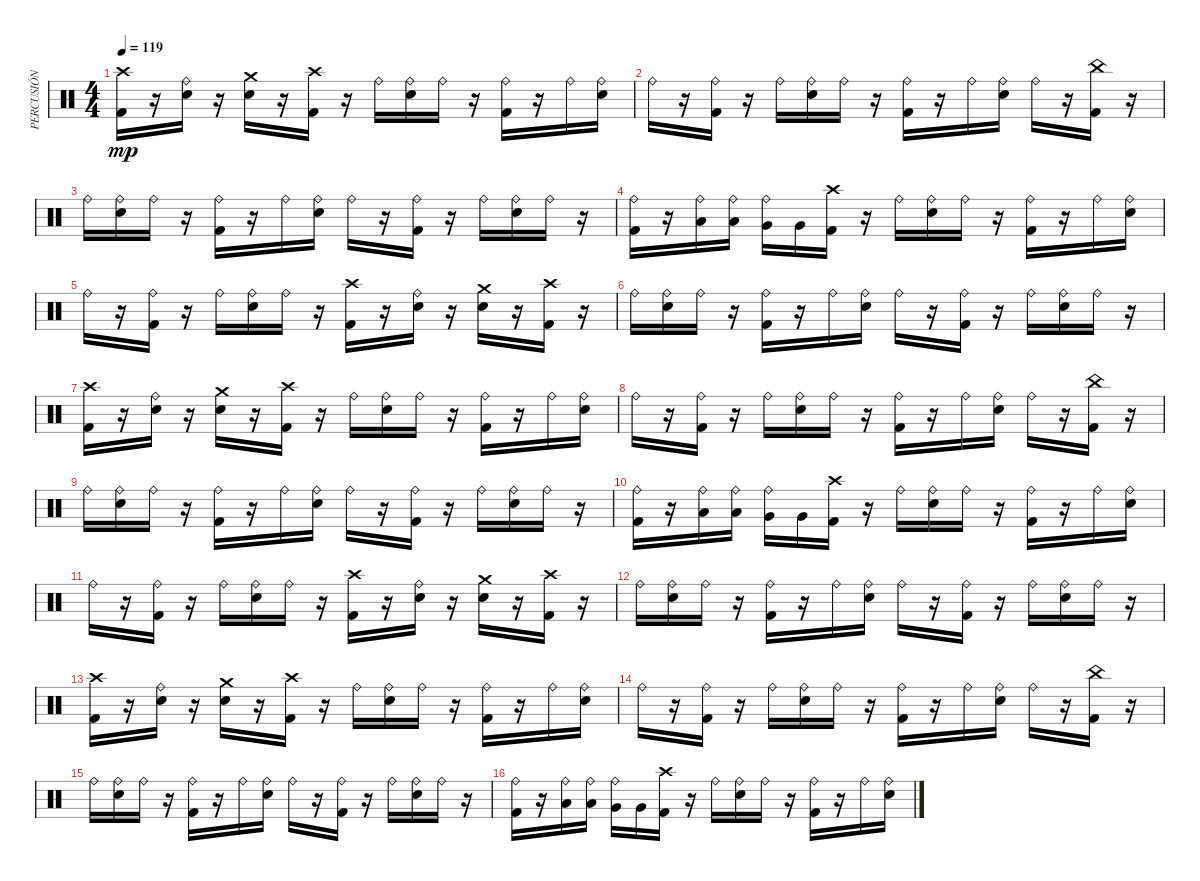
\track ("PERCUSIÓN" "PERCUSIÓN") {instrument percussion}
\staff {score}
\articulation defaults
\ts (4 4)
\tempo 119
\clef neutral
\ks c
("Kick (hit) 2" "Crash high (hit)").16{dy mp} r.16 ("Snare (hit) 2" "Ride (bell)").16 r.16 ("Snare (hit) 2" "Crash medium (hit)").16 r.16 ("Kick (hit) 2" "Crash high (hit)").16 r.16 "Ride (bell)".16 ("Snare (hit) 2" "Ride (bell)").16 "Ride (bell)".16 r.16 ("Kick (hit) 2" "Ride (bell)").16 r.16 "Ride (bell)".16 ("Ride (bell)" "Snare (hit) 2").16 |
"Ride (bell)".16 r.16 ("Ride (bell)" "Kick (hit) 2").16 r.16 "Ride (bell)".16 ("Ride (bell)" "Snare (hit) 2").16 "Ride (bell)".16 r.16 ("Ride (bell)" "Kick (hit) 2").16 r.16 "Ride (bell)".16 ("Ride (bell)" "Snare (hit) 2").16 "Ride (bell)".16 r.16 ("China (hit)" "Kick (hit) 2").16 r.16 |
"Ride (bell)".16 ("Ride (bell)" "Snare (hit) 2").16 "Ride (bell)".16 r.16 ("Ride (bell)" "Kick (hit) 2").16 r.16 "Ride (bell)".16 ("Ride (bell)" "Snare (hit) 2").16 "Ride (bell)".16 r.16 ("Ride (bell)" "Kick (hit) 2").16 r.16 "Ride (bell)".16 ("Ride (bell)" "Snare (hit) 2").16 "Ride (bell)".16 r.16 |
("Ride (bell)" "Kick (hit) 2").16 r.16 ("Ride (bell)" "Low Floor Tom (hit)").16 ("Ride (bell)" "Low Floor Tom (hit)").16 ("Ride (bell)" "Very Low Tom (hit)").16 "Very Low Tom (hit)".16 ("Kick (hit) 2" "Crash high (hit)").16 r.16 "Ride (bell)".16 ("Snare (hit) 2" "Ride (bell)").16 "Ride (bell)".16 r.16 ("Kick (hit) 2" "Ride (bell)").16 r.16 "Ride (bell)".16 ("Ride (bell)" "Snare (hit) 2").16 |
"Ride (bell)".16 r.16 ("Ride (bell)" "Kick (hit) 2").16 r.16 "Ride (bell)".16 ("Ride (bell)" "Snare (hit) 2").16 "Ride (bell)".16 r.16 ("Kick (hit) 2" "Crash high (hit)").16 r.16 ("Snare (hit) 2" "Ride (bell)").16 r.16 ("Snare (hit) 2" "Crash medium (hit)").16 r.16 ("Kick (hit) 2" "Crash high (hit)").16 r.16 |
"Ride (bell)".16 ("Snare (hit) 2" "Ride (bell)").16 "Ride (bell)".16 r.16 ("Kick (hit) 2" "Ride (bell)").16 r.16 "Ride (bell)".16 ("Ride (bell)" "Snare (hit) 2").16 "Ride (bell)".16 r.16 ("Ride (bell)" "Kick (hit) 2").16 r.16 "Ride (bell)".16 ("Ride (bell)" "Snare (hit) 2").16 "Ride (bell)".16 r.16 |
("Kick (hit) 2" "Crash high (hit)").16 r.16 ("Snare (hit) 2" "Ride (bell)").16 r.16 ("Snare (hit) 2" "Crash medium (hit)").16 r.16 ("Kick (hit) 2" "Crash high (hit)").16 r.16 "Ride (bell)".16 ("Snare (hit) 2" "Ride (bell)").16 "Ride (bell)".16 r.16 ("Kick (hit) 2" "Ride (bell)").16 r.16 "Ride (bell)".16 ("Ride (bell)" "Snare (hit) 2").16 |
"Ride (bell)".16 r.16 ("Ride (bell)" "Kick (hit) 2").16 r.16 "Ride (bell)".16 ("Ride (bell)" "Snare (hit) 2").16 "Ride (bell)".16 r.16 ("Ride (bell)" "Kick (hit) 2").16 r.16 "Ride (bell)".16 ("Ride (bell)" "Snare (hit) 2").16 "Ride (bell)".16 r.16 ("China (hit)" "Kick (hit) 2").16 r.16 |
"Ride (bell)".16 ("Ride (bell)" "Snare (hit) 2").16 "Ride (bell)".16 r.16 ("Ride (bell)" "Kick (hit) 2").16 r.16 "Ride (bell)".16 ("Ride (bell)" "Snare (hit) 2").16 "Ride (bell)".16 r.16 ("Ride (bell)" "Kick (hit) 2").16 r.16 "Ride (bell)".16 ("Ride (bell)" "Snare (hit) 2").16 "Ride (bell)".16 r.16 |
("Ride (bell)" "Kick (hit) 2").16 r.16 ("Ride (bell)" "Low Floor Tom (hit)").16 ("Ride (bell)" "Low Floor Tom (hit)").16 ("Ride (bell)" "Very Low Tom (hit)").16 "Very Low Tom (hit)".16 ("Kick (hit) 2" "Crash high (hit)").16 r.16 "Ride (bell)".16 ("Snare (hit) 2" "Ride (bell)").16 "Ride (bell)".16 r.16 ("Kick (hit) 2" "Ride (bell)").16 r.16 "Ride (bell)".16 ("Ride (bell)" "Snare (hit) 2").16 |
"Ride (bell)".16 r.16 ("Ride (bell)" "Kick (hit) 2").16 r.16 "Ride (bell)".16 ("Ride (bell)" "Snare (hit) 2").16 "Ride (bell)".16 r.16 ("Kick (hit) 2" "Crash high (hit)").16 r.16 ("Snare (hit) 2" "Ride (bell)").16 r.16 ("Snare (hit) 2" "Crash medium (hit)").16 r.16 ("Kick (hit) 2" "Crash high (hit)").16 r.16 |
"Ride (bell)".16 ("Snare (hit) 2" "Ride (bell)").16 "Ride (bell)".16 r.16 ("Kick (hit) 2" "Ride (bell)").16 r.16 "Ride (bell)".16 ("Ride (bell)" "Snare (hit) 2").16 "Ride (bell)".16 r.16 ("Ride (bell)" "Kick (hit) 2").16 r.16 "Ride (bell)".16 ("Ride (bell)" "Snare (hit) 2").16 "Ride (bell)".16 r.16 |
("Kick (hit) 2" "Crash high (hit)").16 r.16 ("Snare (hit) 2" "Ride (bell)").16 r.16 ("Snare (hit) 2" "Crash medium (hit)").16 r.16 ("Kick (hit) 2" "Crash high (hit)").16 r.16 "Ride (bell)".16 ("Snare (hit) 2" "Ride (bell)").16 "Ride (bell)".16 r.16 ("Kick (hit) 2" "Ride (bell)").16 r.16 "Ride (bell)".16 ("Ride (bell)" "Snare (hit) 2").16 |
"Ride (bell)".16 r.16 ("Ride (bell)" "Kick (hit) 2").16 r.16 "Ride (bell)".16 ("Ride (bell)" "Snare (hit) 2").16 "Ride (bell)".16 r.16 ("Ride (bell)" "Kick (hit) 2").16 r.16 "Ride (bell)".16 ("Ride (bell)" "Snare (hit) 2").16 "Ride (bell)".16 r.16 ("China (hit)" "Kick (hit) 2").16 r.16 |
"Ride (bell)".16 ("Ride (bell)" "Snare (hit) 2").16 "Ride (bell)".16 r.16 ("Ride (bell)" "Kick (hit) 2").16 r.16 "Ride (bell)".16 ("Ride (bell)" "Snare (hit) 2").16 "Ride (bell)".16 r.16 ("Ride (bell)" "Kick (hit) 2").16 r.16 "Ride (bell)".16 ("Ride (bell)" "Snare (hit) 2").16 "Ride (bell)".16 r.16 |
("Ride (bell)" "Kick (hit) 2").16 r.16 ("Ride (bell)" "Low Floor Tom (hit)").16 ("Ride (bell)" "Low Floor Tom (hit)").16 ("Ride (bell)" "Very Low Tom (hit)").16 "Very Low Tom (hit)".16 ("Kick (hit) 2" "Crash high (hit)").16 r.16 "Ride (bell)".16 ("Snare (hit) 2" "Ride (bell)").16 "Ride (bell)".16 r.16 ("Kick (hit) 2" "Ride (bell)").16 r.16 "Ride (bell)".16 ("Ride (bell)" "Snare (hit) 2").16
